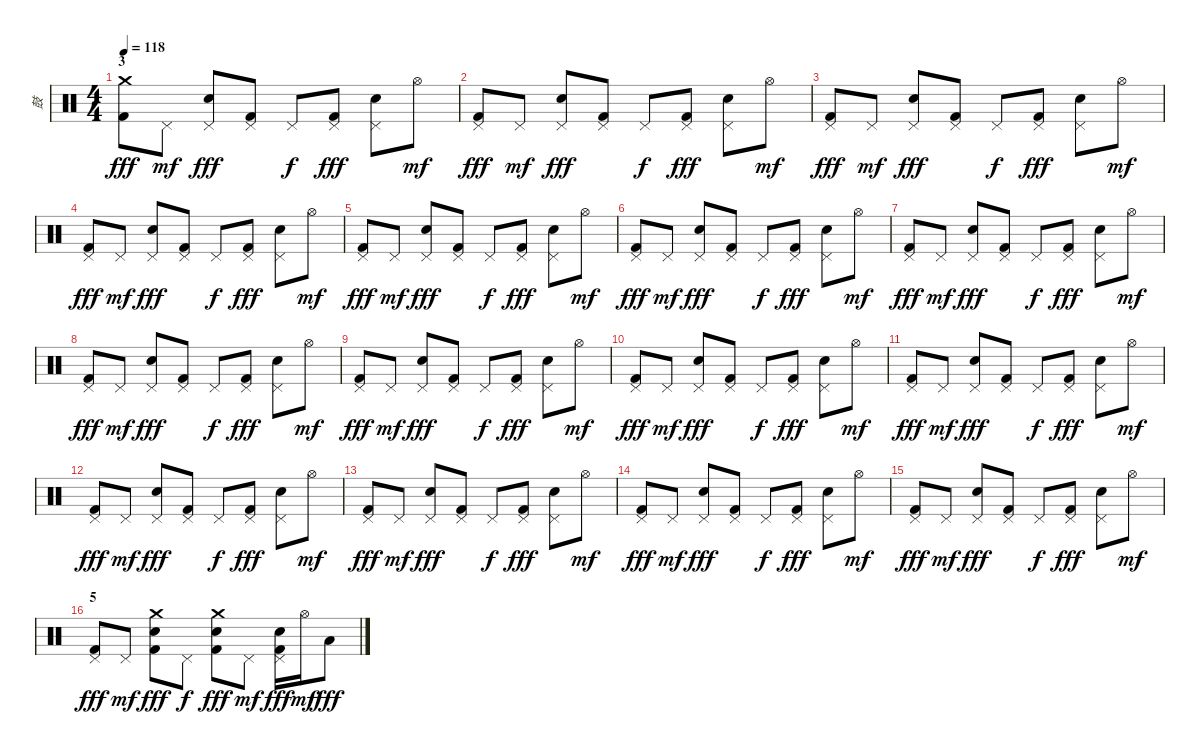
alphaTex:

\track ("鼓" "鼓") {instrument percussion}
\staff {score}
\articulation defaults
\ts (4 4)
\section ("" "3")
\tempo 118
\clef neutral
\ks c
("Crash medium (hit)" "Kick (hit) 2").8{dy fff} "Pedal Hi-Hat (hit)".8{dy mf} ("Pedal Hi-Hat (hit)" "Snare (hit) 2").8{dy fff} ("Pedal Hi-Hat (hit)" "Kick (hit) 2").8 "Pedal Hi-Hat (hit)".8{dy f} ("Pedal Hi-Hat (hit)" "Kick (hit) 2").8{dy fff} ("Pedal Hi-Hat (hit)" "Snare (hit) 2").8 "Hi-Hat (open)".8{dy mf} |
("Pedal Hi-Hat (hit)" "Kick (hit) 2").8{dy fff} "Pedal Hi-Hat (hit)".8{dy mf} ("Pedal Hi-Hat (hit)" "Snare (hit) 2").8{dy fff} ("Pedal Hi-Hat (hit)" "Kick (hit) 2").8 "Pedal Hi-Hat (hit)".8{dy f} ("Pedal Hi-Hat (hit)" "Kick (hit) 2").8{dy fff} ("Pedal Hi-Hat (hit)" "Snare (hit) 2").8 "Hi-Hat (open)".8{dy mf} |
("Pedal Hi-Hat (hit)" "Kick (hit) 2").8{dy fff} "Pedal Hi-Hat (hit)".8{dy mf} ("Pedal Hi-Hat (hit)" "Snare (hit) 2").8{dy fff} ("Pedal Hi-Hat (hit)" "Kick (hit) 2").8 "Pedal Hi-Hat (hit)".8{dy f} ("Pedal Hi-Hat (hit)" "Kick (hit) 2").8{dy fff} ("Pedal Hi-Hat (hit)" "Snare (hit) 2").8 "Hi-Hat (open)".8{dy mf} |
("Pedal Hi-Hat (hit)" "Kick (hit) 2").8{dy fff} "Pedal Hi-Hat (hit)".8{dy mf} ("Pedal Hi-Hat (hit)" "Snare (hit) 2").8{dy fff} ("Pedal Hi-Hat (hit)" "Kick (hit) 2").8 "Pedal Hi-Hat (hit)".8{dy f} ("Pedal Hi-Hat (hit)" "Kick (hit) 2").8{dy fff} ("Pedal Hi-Hat (hit)" "Snare (hit) 2").8 "Hi-Hat (open)".8{dy mf} |
("Pedal Hi-Hat (hit)" "Kick (hit) 2").8{dy fff} "Pedal Hi-Hat (hit)".8{dy mf} ("Pedal Hi-Hat (hit)" "Snare (hit) 2").8{dy fff} ("Pedal Hi-Hat (hit)" "Kick (hit) 2").8 "Pedal Hi-Hat (hit)".8{dy f} ("Pedal Hi-Hat (hit)" "Kick (hit) 2").8{dy fff} ("Pedal Hi-Hat (hit)" "Snare (hit) 2").8 "Hi-Hat (open)".8{dy mf} |
("Pedal Hi-Hat (hit)" "Kick (hit) 2").8{dy fff} "Pedal Hi-Hat (hit)".8{dy mf} ("Pedal Hi-Hat (hit)" "Snare (hit) 2").8{dy fff} ("Pedal Hi-Hat (hit)" "Kick (hit) 2").8 "Pedal Hi-Hat (hit)".8{dy f} ("Pedal Hi-Hat (hit)" "Kick (hit) 2").8{dy fff} ("Pedal Hi-Hat (hit)" "Snare (hit) 2").8 "Hi-Hat (open)".8{dy mf} |
("Pedal Hi-Hat (hit)" "Kick (hit) 2").8{dy fff} "Pedal Hi-Hat (hit)".8{dy mf} ("Pedal Hi-Hat (hit)" "Snare (hit) 2").8{dy fff} ("Pedal Hi-Hat (hit)" "Kick (hit) 2").8 "Pedal Hi-Hat (hit)".8{dy f} ("Pedal Hi-Hat (hit)" "Kick (hit) 2").8{dy fff} ("Pedal Hi-Hat (hit)" "Snare (hit) 2").8 "Hi-Hat (open)".8{dy mf} |
("Pedal Hi-Hat (hit)" "Kick (hit) 2").8{dy fff} "Pedal Hi-Hat (hit)".8{dy mf} ("Pedal Hi-Hat (hit)" "Snare (hit) 2").8{dy fff} ("Pedal Hi-Hat (hit)" "Kick (hit) 2").8 "Pedal Hi-Hat (hit)".8{dy f} ("Pedal Hi-Hat (hit)" "Kick (hit) 2").8{dy fff} ("Pedal Hi-Hat (hit)" "Snare (hit) 2").8 "Hi-Hat (open)".8{dy mf} |
("Pedal Hi-Hat (hit)" "Kick (hit) 2").8{dy fff} "Pedal Hi-Hat (hit)".8{dy mf} ("Pedal Hi-Hat (hit)" "Snare (hit) 2").8{dy fff} ("Pedal Hi-Hat (hit)" "Kick (hit) 2").8 "Pedal Hi-Hat (hit)".8{dy f} ("Pedal Hi-Hat (hit)" "Kick (hit) 2").8{dy fff} ("Pedal Hi-Hat (hit)" "Snare (hit) 2").8 "Hi-Hat (open)".8{dy mf} |
("Pedal Hi-Hat (hit)" "Kick (hit) 2").8{dy fff} "Pedal Hi-Hat (hit)".8{dy mf} ("Pedal Hi-Hat (hit)" "Snare (hit) 2").8{dy fff} ("Pedal Hi-Hat (hit)" "Kick (hit) 2").8 "Pedal Hi-Hat (hit)".8{dy f} ("Pedal Hi-Hat (hit)" "Kick (hit) 2").8{dy fff} ("Pedal Hi-Hat (hit)" "Snare (hit) 2").8 "Hi-Hat (open)".8{dy mf} |
("Pedal Hi-Hat (hit)" "Kick (hit) 2").8{dy fff} "Pedal Hi-Hat (hit)".8{dy mf} ("Pedal Hi-Hat (hit)" "Snare (hit) 2").8{dy fff} ("Pedal Hi-Hat (hit)" "Kick (hit) 2").8 "Pedal Hi-Hat (hit)".8{dy f} ("Pedal Hi-Hat (hit)" "Kick (hit) 2").8{dy fff} ("Pedal Hi-Hat (hit)" "Snare (hit) 2").8 "Hi-Hat (open)".8{dy mf} |
("Pedal Hi-Hat (hit)" "Kick (hit) 2").8{dy fff} "Pedal Hi-Hat (hit)".8{dy mf} ("Pedal Hi-Hat (hit)" "Snare (hit) 2").8{dy fff} ("Pedal Hi-Hat (hit)" "Kick (hit) 2").8 "Pedal Hi-Hat (hit)".8{dy f} ("Pedal Hi-Hat (hit)" "Kick (hit) 2").8{dy fff} ("Pedal Hi-Hat (hit)" "Snare (hit) 2").8 "Hi-Hat (open)".8{dy mf} |
("Pedal Hi-Hat (hit)" "Kick (hit) 2").8{dy fff} "Pedal Hi-Hat (hit)".8{dy mf} ("Pedal Hi-Hat (hit)" "Snare (hit) 2").8{dy fff} ("Pedal Hi-Hat (hit)" "Kick (hit) 2").8 "Pedal Hi-Hat (hit)".8{dy f} ("Pedal Hi-Hat (hit)" "Kick (hit) 2").8{dy fff} ("Pedal Hi-Hat (hit)" "Snare (hit) 2").8 "Hi-Hat (open)".8{dy mf} |
("Pedal Hi-Hat (hit)" "Kick (hit) 2").8{dy fff} "Pedal Hi-Hat (hit)".8{dy mf} ("Pedal Hi-Hat (hit)" "Snare (hit) 2").8{dy fff} ("Pedal Hi-Hat (hit)" "Kick (hit) 2").8 "Pedal Hi-Hat (hit)".8{dy f} ("Pedal Hi-Hat (hit)" "Kick (hit) 2").8{dy fff} ("Pedal Hi-Hat (hit)" "Snare (hit) 2").8 "Hi-Hat (open)".8{dy mf} |
("Pedal Hi-Hat (hit)" "Kick (hit) 2").8{dy fff} "Pedal Hi-Hat (hit)".8{dy mf} ("Pedal Hi-Hat (hit)" "Snare (hit) 2").8{dy fff} ("Pedal Hi-Hat (hit)" "Kick (hit) 2").8 "Pedal Hi-Hat (hit)".8{dy f} ("Pedal Hi-Hat (hit)" "Kick (hit) 2").8{dy fff} ("Pedal Hi-Hat (hit)" "Snare (hit) 2").8 "Hi-Hat (open)".8{dy mf} |
\section ("" "5")
("Pedal Hi-Hat (hit)" "Kick (hit) 2").8{dy fff} "Pedal Hi-Hat (hit)".8{dy mf} ("Crash medium (hit)" "Snare (hit) 2" "Kick (hit) 2").8{dy fff} "Pedal Hi-Hat (hit)".8{dy f} ("Crash medium (hit)" "Snare (hit) 2" "Kick (hit) 2").8{dy fff} "Pedal Hi-Hat (hit)".8{dy mf} ("Pedal Hi-Hat (hit)" "Snare (hit) 2" "Kick (hit) 2").16{dy fff} "Hi-Hat (open)".16{dy mf} "Low Tom (hit)".8{dy fff}
